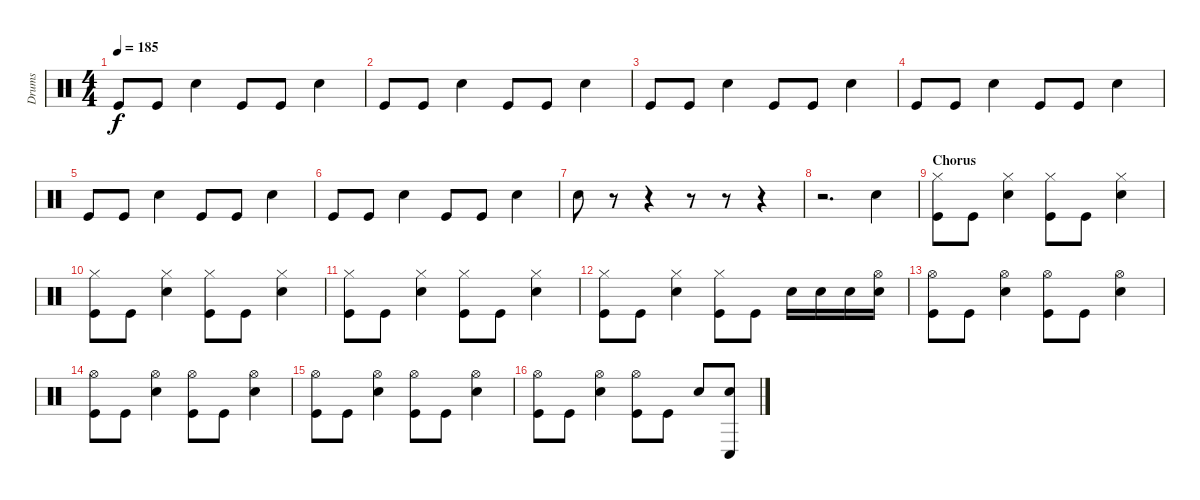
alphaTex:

\track ("Drums" "Drums") {instrument percussion}
\staff {score}
\articulation defaults
\ts (4 4)
\tempo 185
\clef neutral
\ks c "Kick (hit)".8{dy f} "Kick (hit)".8 "Electric Snare (hit)".4 "Kick (hit)".8 "Kick (hit)".8 "Electric Snare (hit)".4
|
"Kick (hit)".8 "Kick (hit)".8 "Electric Snare (hit)".4 "Kick (hit)".8 "Kick (hit)".8 "Electric Snare (hit)".4 |
"Kick (hit)".8 "Kick (hit)".8 "Electric Snare (hit)".4 "Kick (hit)".8 "Kick (hit)".8 "Electric Snare (hit)".4 |
"Kick (hit)".8 "Kick (hit)".8 "Electric Snare (hit)".4 "Kick (hit)".8 "Kick (hit)".8 "Electric Snare (hit)".4 |
"Kick (hit)".8 "Kick (hit)".8 "Electric Snare (hit)".4 "Kick (hit)".8 "Kick (hit)".8 "Electric Snare (hit)".4 |
"Kick (hit)".8 "Kick (hit)".8 "Electric Snare (hit)".4 "Kick (hit)".8 "Kick (hit)".8 "Electric Snare (hit)".4 |
"Electric Snare (hit)".8 r.8 r.4 r.8 r.8 r.4 |
r.2{d} "Electric Snare (hit)".4 |
\section ("" "Chorus")
("Kick (hit)" "Hi-Hat (closed)").8 "Kick (hit)".8 ("Electric Snare (hit)" "Hi-Hat (closed)").4 ("Kick (hit)" "Hi-Hat (closed)").8 "Kick (hit)".8 ("Electric Snare (hit)" "Hi-Hat (closed)").4 |
("Kick (hit)" "Hi-Hat (closed)").8 "Kick (hit)".8 ("Electric Snare (hit)" "Hi-Hat (closed)").4 ("Kick (hit)" "Hi-Hat (closed)").8 "Kick (hit)".8 ("Electric Snare (hit)" "Hi-Hat (closed)").4 |
("Kick (hit)" "Hi-Hat (closed)").8 "Kick (hit)".8 ("Electric Snare (hit)" "Hi-Hat (closed)").4 ("Kick (hit)" "Hi-Hat (closed)").8 "Kick (hit)".8 ("Electric Snare (hit)" "Hi-Hat (closed)").4 |
("Kick (hit)" "Hi-Hat (closed)").8 "Kick (hit)".8 ("Electric Snare (hit)" "Hi-Hat (closed)").4 ("Kick (hit)" "Hi-Hat (closed)").8 "Kick (hit)".8 "Electric Snare (hit)".16 "Electric Snare (hit)".16 "Electric Snare (hit)".16 ("Electric Snare (hit)" "Hi-Hat (open)").16 |
("Kick (hit)" "Hi-Hat (open)").8 "Kick (hit)".8 ("Electric Snare (hit)" "Hi-Hat (open)").4 ("Kick (hit)" "Hi-Hat (open)").8 "Kick (hit)".8 ("Electric Snare (hit)" "Hi-Hat (open)").4 |
("Kick (hit)" "Hi-Hat (open)").8 "Kick (hit)".8 ("Electric Snare (hit)" "Hi-Hat (open)").4 ("Kick (hit)" "Hi-Hat (open)").8 "Kick (hit)".8 ("Electric Snare (hit)" "Hi-Hat (open)").4 |
("Kick (hit)" "Hi-Hat (open)").8 "Kick (hit)".8 ("Electric Snare (hit)" "Hi-Hat (open)").4 ("Kick (hit)" "Hi-Hat (open)").8 "Kick (hit)".8 ("Electric Snare (hit)" "Hi-Hat (open)").4 |
("Kick (hit)" "Hi-Hat (open)").8 "Kick (hit)".8 ("Electric Snare (hit)" "Hi-Hat (open)").4 ("Kick (hit)" "Hi-Hat (open)").8 "Kick (hit)".8 "Electric Snare (hit)".8 ("Electric Snare (hit)" "Conga low (hit)").8
